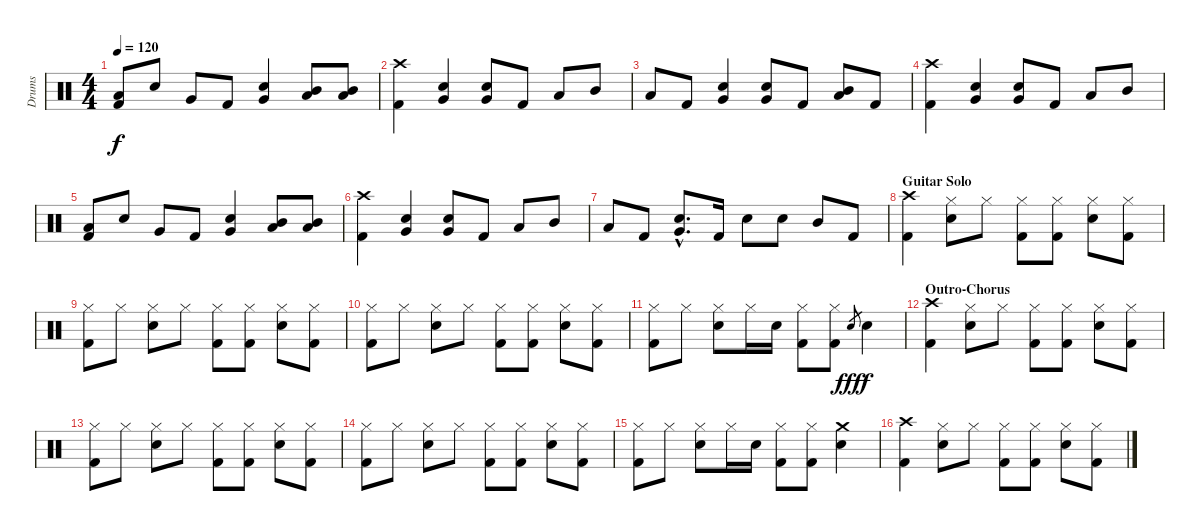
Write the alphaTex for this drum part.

\track ("Drums" "Drums") {instrument percussion}
\staff {score}
\articulation defaults
\ts (4 4)
\tempo 120
\clef neutral
\ks c
("Low Tom (hit)" "Kick (hit) 2").8{dy f} "Electric Snare (hit)".8 "Very Low Tom (hit)".8 "Kick (hit) 2".8 ("Electric Snare (hit)" "Very Low Tom (hit)").4 ("Mid Tom (hit)" "Low Tom (hit)").8 ("Mid Tom (hit)" "Low Tom (hit)").8 |
("Crash high (hit)" "Kick (hit) 2").4 ("Electric Snare (hit)" "Very Low Tom (hit)").4 ("Electric Snare (hit)" "Very Low Tom (hit)").8 "Kick (hit) 2".8 "Low Tom (hit)".8 "Mid Tom (hit)".8 |
"Low Tom (hit)".8 "Kick (hit) 2".8 ("Electric Snare (hit)" "Very Low Tom (hit)").4 ("Electric Snare (hit)" "Very Low Tom (hit)").8 "Kick (hit) 2".8 ("Mid Tom (hit)" "Low Tom (hit)").8 "Kick (hit) 2".8 |
("Crash high (hit)" "Kick (hit) 2").4 ("Electric Snare (hit)" "Very Low Tom (hit)").4 ("Electric Snare (hit)" "Very Low Tom (hit)").8 "Kick (hit) 2".8 "Low Tom (hit)".8 "Mid Tom (hit)".8 |
("Low Tom (hit)" "Kick (hit) 2").8 "Electric Snare (hit)".8 "Very Low Tom (hit)".8 "Kick (hit) 2".8 ("Electric Snare (hit)" "Very Low Tom (hit)").4 ("Mid Tom (hit)" "Low Tom (hit)").8 ("Mid Tom (hit)" "Low Tom (hit)").8 |
("Crash high (hit)" "Kick (hit) 2").4 ("Electric Snare (hit)" "Very Low Tom (hit)").4 ("Electric Snare (hit)" "Very Low Tom (hit)").8 "Kick (hit) 2".8 "Low Tom (hit)".8 "Mid Tom (hit)".8 |
"Low Tom (hit)".8 "Kick (hit) 2".8 ("Electric Snare (hit)"{hac} "Very Low Tom (hit)"{hac}).8{d} "Kick (hit) 2".16 "Electric Snare (hit)".8 "Electric Snare (hit)".8 "Mid Tom (hit)".8 "Kick (hit) 2".8 |
\section ("" "Guitar Solo")
("Crash high (hit)" "Kick (hit) 2").4 ("Hi-Hat (closed)" "Electric Snare (hit)").8 "Hi-Hat (closed)".8 ("Hi-Hat (closed)" "Kick (hit) 2").8 ("Hi-Hat (closed)" "Kick (hit) 2").8 ("Hi-Hat (closed)" "Electric Snare (hit)").8 ("Hi-Hat (closed)" "Kick (hit) 2").8 |
("Hi-Hat (closed)" "Kick (hit) 2").8 "Hi-Hat (closed)".8 ("Hi-Hat (closed)" "Electric Snare (hit)").8 "Hi-Hat (closed)".8 ("Hi-Hat (closed)" "Kick (hit) 2").8 ("Hi-Hat (closed)" "Kick (hit) 2").8 ("Hi-Hat (closed)" "Electric Snare (hit)").8 ("Hi-Hat (closed)" "Kick (hit) 2").8 |
("Hi-Hat (closed)" "Kick (hit) 2").8 "Hi-Hat (closed)".8 ("Hi-Hat (closed)" "Electric Snare (hit)").8 "Hi-Hat (closed)".8 ("Hi-Hat (closed)" "Kick (hit) 2").8 ("Hi-Hat (closed)" "Kick (hit) 2").8 ("Hi-Hat (closed)" "Electric Snare (hit)").8 ("Hi-Hat (closed)" "Kick (hit) 2").8 |
("Hi-Hat (closed)" "Kick (hit) 2").8 "Hi-Hat (closed)".8 ("Hi-Hat (closed)" "Electric Snare (hit)").8 "Hi-Hat (closed)".16 "Electric Snare (hit)".16 ("Hi-Hat (closed)" "Kick (hit) 2").8 ("Hi-Hat (closed)" "Kick (hit) 2").8 "Electric Snare (hit)".8{gr dy fff} "Electric Snare (hit)".4{dy f} |
\section ("" "Outro-Chorus")
("Crash high (hit)" "Kick (hit) 2").4 ("Hi-Hat (closed)" "Electric Snare (hit)").8 "Hi-Hat (closed)".8 ("Hi-Hat (closed)" "Kick (hit) 2").8 ("Hi-Hat (closed)" "Kick (hit) 2").8 ("Hi-Hat (closed)" "Electric Snare (hit)").8 ("Hi-Hat (closed)" "Kick (hit) 2").8 |
("Hi-Hat (closed)" "Kick (hit) 2").8 "Hi-Hat (closed)".8 ("Hi-Hat (closed)" "Electric Snare (hit)").8 "Hi-Hat (closed)".8 ("Hi-Hat (closed)" "Kick (hit) 2").8 ("Hi-Hat (closed)" "Kick (hit) 2").8 ("Hi-Hat (closed)" "Electric Snare (hit)").8 ("Hi-Hat (closed)" "Kick (hit) 2").8 |
("Hi-Hat (closed)" "Kick (hit) 2").8 "Hi-Hat (closed)".8 ("Hi-Hat (closed)" "Electric Snare (hit)").8 "Hi-Hat (closed)".8 ("Hi-Hat (closed)" "Kick (hit) 2").8 ("Hi-Hat (closed)" "Kick (hit) 2").8 ("Hi-Hat (closed)" "Electric Snare (hit)").8 ("Hi-Hat (closed)" "Kick (hit) 2").8 |
("Hi-Hat (closed)" "Kick (hit) 2").8 "Hi-Hat (closed)".8 ("Hi-Hat (closed)" "Electric Snare (hit)").8 "Hi-Hat (closed)".16 "Electric Snare (hit)".16 ("Hi-Hat (closed)" "Kick (hit) 2").8 ("Hi-Hat (closed)" "Kick (hit) 2").8 ("Crash medium (hit)" "Electric Snare (hit)").4 |
("Crash high (hit)" "Kick (hit) 2").4 ("Hi-Hat (closed)" "Electric Snare (hit)").8 "Hi-Hat (closed)".8 ("Hi-Hat (closed)" "Kick (hit) 2").8 ("Hi-Hat (closed)" "Kick (hit) 2").8 ("Hi-Hat (closed)" "Electric Snare (hit)").8 ("Hi-Hat (closed)" "Kick (hit) 2").8
